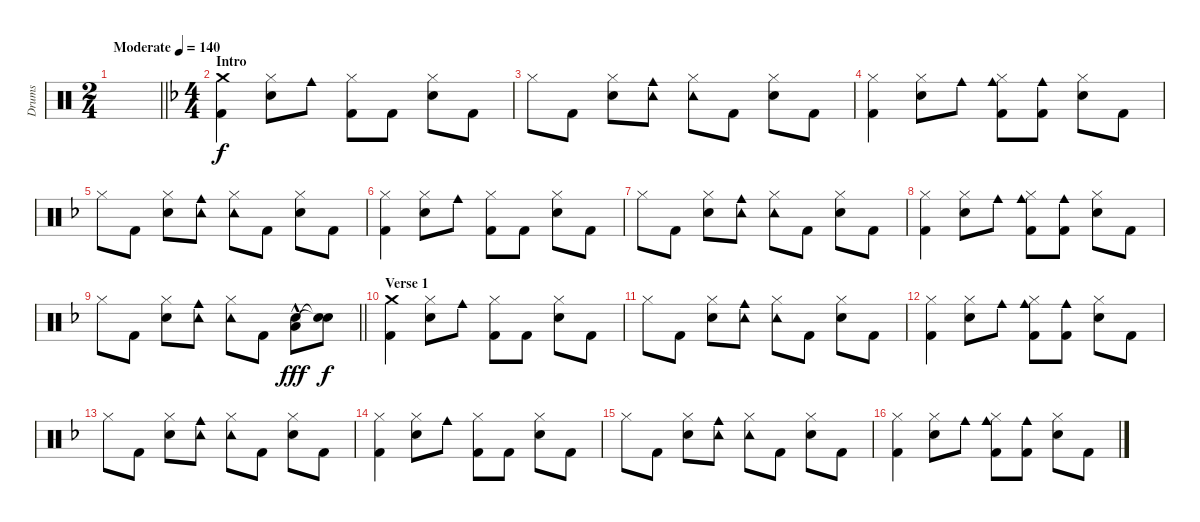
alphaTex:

\track ("Drums" "Drums") {instrument percussion}
\staff {score}
\articulation defaults
\ts (2 4)
\tempo (140 "Moderate")
\clef neutral
\barLineRight lightlight
\ks c
|
\ts (4 4)
\section ("" "Intro")
\ks f
("Crash medium (hit)" "Kick (hit) 2").4 ("Hi-Hat (closed)" "Electric Snare (hit)").8 "Cowbell medium (hit)".8 ("Hi-Hat (closed)" "Kick (hit) 2").8 "Kick (hit) 2".8 ("Hi-Hat (closed)" "Electric Snare (hit)").8 "Kick (hit) 2".8 |
"Hi-Hat (closed)".8 "Kick (hit) 2".8 ("Hi-Hat (closed)" "Electric Snare (hit)").8 ("Tambourine (hit)" "Cowbell medium (hit)").8 ("Hi-Hat (closed)" "Tambourine (hit)").8 "Kick (hit) 2".8 ("Hi-Hat (closed)" "Electric Snare (hit)").8 "Kick (hit) 2".8 |
("Hi-Hat (closed)" "Kick (hit) 2").4 ("Hi-Hat (closed)" "Electric Snare (hit)").8 "Cowbell medium (hit)".8 ("Hi-Hat (closed)" "Cowbell medium (hit)" "Kick (hit) 2").8 ("Cowbell medium (hit)" "Kick (hit) 2").8 ("Hi-Hat (closed)" "Electric Snare (hit)").8 "Kick (hit) 2".8 |
"Hi-Hat (closed)".8 "Kick (hit) 2".8 ("Hi-Hat (closed)" "Electric Snare (hit)").8 ("Tambourine (hit)" "Cowbell medium (hit)").8 ("Hi-Hat (closed)" "Tambourine (hit)").8 "Kick (hit) 2".8 ("Hi-Hat (closed)" "Electric Snare (hit)").8 "Kick (hit) 2".8 |
("Hi-Hat (closed)" "Kick (hit) 2").4 ("Hi-Hat (closed)" "Electric Snare (hit)").8 "Cowbell medium (hit)".8 ("Hi-Hat (closed)" "Kick (hit) 2").8 "Kick (hit) 2".8 ("Hi-Hat (closed)" "Electric Snare (hit)").8 "Kick (hit) 2".8 |
"Hi-Hat (closed)".8 "Kick (hit) 2".8 ("Hi-Hat (closed)" "Electric Snare (hit)").8 ("Tambourine (hit)" "Cowbell medium (hit)").8 ("Hi-Hat (closed)" "Tambourine (hit)").8 "Kick (hit) 2".8 ("Hi-Hat (closed)" "Electric Snare (hit)").8 "Kick (hit) 2".8 |
("Hi-Hat (closed)" "Kick (hit) 2").4 ("Hi-Hat (closed)" "Electric Snare (hit)").8 "Cowbell medium (hit)".8 ("Hi-Hat (closed)" "Cowbell medium (hit)" "Kick (hit) 2").8 ("Cowbell medium (hit)" "Kick (hit) 2").8 ("Hi-Hat (closed)" "Electric Snare (hit)").8 "Kick (hit) 2".8 |
\barLineRight lightlight "Hi-Hat (closed)".8 "Kick (hit) 2".8
("Hi-Hat (closed)" "Electric Snare (hit)").8 ("Tambourine (hit)" "Cowbell medium (hit)").8 ("Hi-Hat (closed)" "Tambourine (hit)").8 "Kick (hit) 2".8 ("Electric Snare (hit)" "Low Tom (hit)"{hac}).8{dy fff} ("Snare (hit)"{t} "Snare (hit)"{t}).8{dy f} |
\section ("" "Verse 1")
("Crash medium (hit)" "Kick (hit) 2").4 ("Hi-Hat (closed)" "Electric Snare (hit)").8 "Cowbell medium (hit)".8 ("Hi-Hat (closed)" "Kick (hit) 2").8 "Kick (hit) 2".8 ("Hi-Hat (closed)" "Electric Snare (hit)").8 "Kick (hit) 2".8 |
"Hi-Hat (closed)".8 "Kick (hit) 2".8 ("Hi-Hat (closed)" "Electric Snare (hit)").8 ("Tambourine (hit)" "Cowbell medium (hit)").8 ("Hi-Hat (closed)" "Tambourine (hit)").8 "Kick (hit) 2".8 ("Hi-Hat (closed)" "Electric Snare (hit)").8 "Kick (hit) 2".8 |
("Hi-Hat (closed)" "Kick (hit) 2").4 ("Hi-Hat (closed)" "Electric Snare (hit)").8 "Cowbell medium (hit)".8 ("Hi-Hat (closed)" "Cowbell medium (hit)" "Kick (hit) 2").8 ("Cowbell medium (hit)" "Kick (hit) 2").8 ("Hi-Hat (closed)" "Electric Snare (hit)").8 "Kick (hit) 2".8 |
"Hi-Hat (closed)".8 "Kick (hit) 2".8 ("Hi-Hat (closed)" "Electric Snare (hit)").8 ("Tambourine (hit)" "Cowbell medium (hit)").8 ("Hi-Hat (closed)" "Tambourine (hit)").8 "Kick (hit) 2".8 ("Hi-Hat (closed)" "Electric Snare (hit)").8 "Kick (hit) 2".8 |
("Hi-Hat (closed)" "Kick (hit) 2").4 ("Hi-Hat (closed)" "Electric Snare (hit)").8 "Cowbell medium (hit)".8 ("Hi-Hat (closed)" "Kick (hit) 2").8 "Kick (hit) 2".8 ("Hi-Hat (closed)" "Electric Snare (hit)").8 "Kick (hit) 2".8 |
"Hi-Hat (closed)".8 "Kick (hit) 2".8 ("Hi-Hat (closed)" "Electric Snare (hit)").8 ("Tambourine (hit)" "Cowbell medium (hit)").8 ("Hi-Hat (closed)" "Tambourine (hit)").8 "Kick (hit) 2".8 ("Hi-Hat (closed)" "Electric Snare (hit)").8 "Kick (hit) 2".8 |
("Hi-Hat (closed)" "Kick (hit) 2").4 ("Hi-Hat (closed)" "Electric Snare (hit)").8 "Cowbell medium (hit)".8 ("Hi-Hat (closed)" "Cowbell medium (hit)" "Kick (hit) 2").8 ("Cowbell medium (hit)" "Kick (hit) 2").8 ("Hi-Hat (closed)" "Electric Snare (hit)").8 "Kick (hit) 2".8
